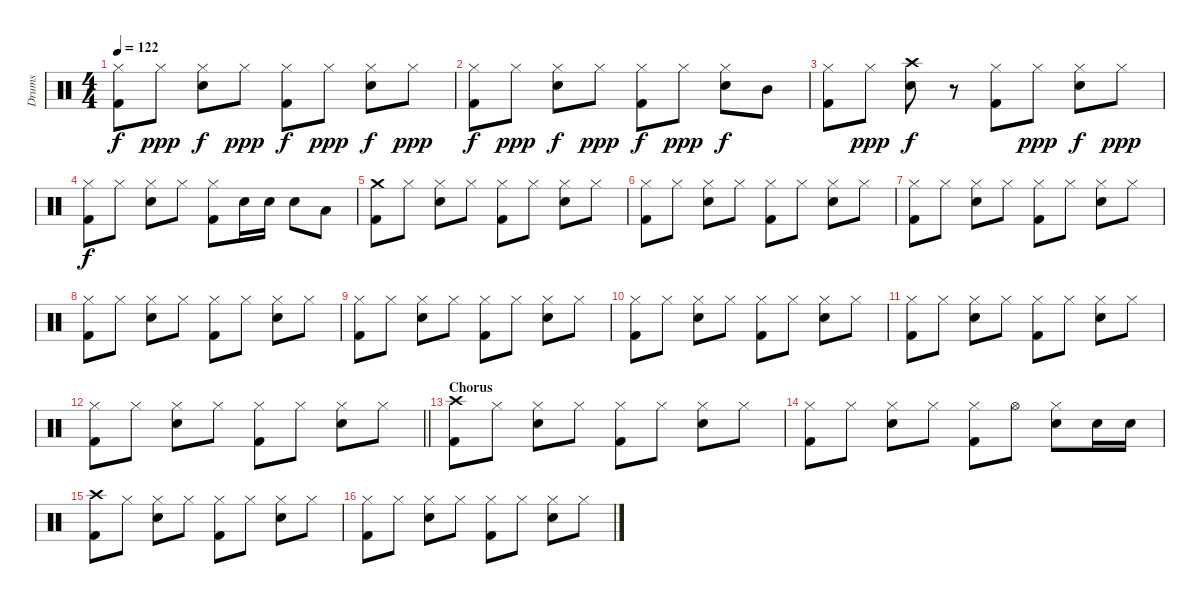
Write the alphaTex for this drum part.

\track ("Drums" "Drums") {instrument percussion}
\staff {score}
\articulation defaults
\ts (4 4)
\tempo 122
\clef neutral
\ks c
("Hi-Hat (closed)" "Kick (hit) 2").8{dy f} "Hi-Hat (closed)".8{dy ppp} ("Hi-Hat (closed)" "Electric Snare (hit)").8{dy f} "Hi-Hat (closed)".8{dy ppp} ("Hi-Hat (closed)" "Kick (hit) 2").8{dy f} "Hi-Hat (closed)".8{dy ppp} ("Hi-Hat (closed)" "Electric Snare (hit)").8{dy f} "Hi-Hat (closed)".8{dy ppp} |
("Hi-Hat (closed)" "Kick (hit) 2").8{dy f} "Hi-Hat (closed)".8{dy ppp} ("Hi-Hat (closed)" "Electric Snare (hit)").8{dy f} "Hi-Hat (closed)".8{dy ppp} ("Hi-Hat (closed)" "Kick (hit) 2").8{dy f} "Hi-Hat (closed)".8{dy ppp} ("Hi-Hat (closed)" "Electric Snare (hit)").8{dy f} "Mid Tom (hit)".8 |
("Hi-Hat (closed)" "Kick (hit) 2").8 "Hi-Hat (closed)".8{dy ppp} ("Crash high (hit)" "Electric Snare (hit)").8{dy f} r.8 ("Hi-Hat (closed)" "Kick (hit) 2").8 "Hi-Hat (closed)".8{dy ppp} ("Hi-Hat (closed)" "Electric Snare (hit)").8{dy f} "Hi-Hat (closed)".8{dy ppp} |
("Hi-Hat (closed)" "Kick (hit) 2").8{dy f} "Hi-Hat (closed)".8 ("Hi-Hat (closed)" "Electric Snare (hit)").8 "Hi-Hat (closed)".8 ("Hi-Hat (closed)" "Kick (hit) 2").8 "Electric Snare (hit)".16 "Electric Snare (hit)".16 "Electric Snare (hit)".8 "Low Tom (hit)".8 |
("Crash medium (hit)" "Kick (hit) 2").8 "Hi-Hat (closed)".8 ("Hi-Hat (closed)" "Electric Snare (hit)").8 "Hi-Hat (closed)".8 ("Hi-Hat (closed)" "Kick (hit) 2").8 "Hi-Hat (closed)".8 ("Hi-Hat (closed)" "Electric Snare (hit)").8 "Hi-Hat (closed)".8 |
("Hi-Hat (closed)" "Kick (hit) 2").8 "Hi-Hat (closed)".8 ("Hi-Hat (closed)" "Electric Snare (hit)").8 "Hi-Hat (closed)".8 ("Hi-Hat (closed)" "Kick (hit) 2").8 "Hi-Hat (closed)".8 ("Hi-Hat (closed)" "Electric Snare (hit)").8 "Hi-Hat (closed)".8 |
("Hi-Hat (closed)" "Kick (hit) 2").8 "Hi-Hat (closed)".8 ("Hi-Hat (closed)" "Electric Snare (hit)").8 "Hi-Hat (closed)".8 ("Hi-Hat (closed)" "Kick (hit) 2").8 "Hi-Hat (closed)".8 ("Hi-Hat (closed)" "Electric Snare (hit)").8 "Hi-Hat (closed)".8 |
("Hi-Hat (closed)" "Kick (hit) 2").8 "Hi-Hat (closed)".8 ("Hi-Hat (closed)" "Electric Snare (hit)").8 "Hi-Hat (closed)".8 ("Hi-Hat (closed)" "Kick (hit) 2").8 "Hi-Hat (closed)".8 ("Hi-Hat (closed)" "Electric Snare (hit)").8 "Hi-Hat (closed)".8 |
("Hi-Hat (closed)" "Kick (hit) 2").8 "Hi-Hat (closed)".8 ("Hi-Hat (closed)" "Electric Snare (hit)").8 "Hi-Hat (closed)".8 ("Hi-Hat (closed)" "Kick (hit) 2").8 "Hi-Hat (closed)".8 ("Hi-Hat (closed)" "Electric Snare (hit)").8 "Hi-Hat (closed)".8 |
("Hi-Hat (closed)" "Kick (hit) 2").8 "Hi-Hat (closed)".8 ("Hi-Hat (closed)" "Electric Snare (hit)").8 "Hi-Hat (closed)".8 ("Hi-Hat (closed)" "Kick (hit) 2").8 "Hi-Hat (closed)".8 ("Hi-Hat (closed)" "Electric Snare (hit)").8 "Hi-Hat (closed)".8 |
("Hi-Hat (closed)" "Kick (hit) 2").8 "Hi-Hat (closed)".8 ("Hi-Hat (closed)" "Electric Snare (hit)").8 "Hi-Hat (closed)".8 ("Hi-Hat (closed)" "Kick (hit) 2").8 "Hi-Hat (closed)".8 ("Hi-Hat (closed)" "Electric Snare (hit)").8 "Hi-Hat (closed)".8 |
\barLineRight lightlight
("Hi-Hat (closed)" "Kick (hit) 2").8 "Hi-Hat (closed)".8 ("Hi-Hat (closed)" "Electric Snare (hit)").8 "Hi-Hat (closed)".8 ("Hi-Hat (closed)" "Kick (hit) 2").8 "Hi-Hat (closed)".8 ("Hi-Hat (closed)" "Electric Snare (hit)").8 "Hi-Hat (closed)".8 |
\section ("" "Chorus")
("Crash high (hit)" "Kick (hit) 2").8 "Hi-Hat (closed)".8 ("Hi-Hat (closed)" "Electric Snare (hit)").8 "Hi-Hat (closed)".8 ("Hi-Hat (closed)" "Kick (hit) 2").8 "Hi-Hat (closed)".8 ("Hi-Hat (closed)" "Electric Snare (hit)").8 "Hi-Hat (closed)".8 |
("Hi-Hat (closed)" "Kick (hit) 2").8 "Hi-Hat (closed)".8 ("Hi-Hat (closed)" "Electric Snare (hit)").8 "Hi-Hat (closed)".8 ("Hi-Hat (closed)" "Kick (hit) 2").8 "Hi-Hat (open)".8 ("Hi-Hat (closed)" "Electric Snare (hit)").8 "Electric Snare (hit)".16 "Electric Snare (hit)".16 |
("Crash high (hit)" "Kick (hit) 2").8 "Hi-Hat (closed)".8 ("Hi-Hat (closed)" "Electric Snare (hit)").8 "Hi-Hat (closed)".8 ("Hi-Hat (closed)" "Kick (hit) 2").8 "Hi-Hat (closed)".8 ("Hi-Hat (closed)" "Electric Snare (hit)").8 "Hi-Hat (closed)".8 |
("Hi-Hat (closed)" "Kick (hit) 2").8 "Hi-Hat (closed)".8 ("Hi-Hat (closed)" "Electric Snare (hit)").8 "Hi-Hat (closed)".8 ("Hi-Hat (closed)" "Kick (hit) 2").8 "Hi-Hat (closed)".8 ("Hi-Hat (closed)" "Electric Snare (hit)").8 "Hi-Hat (closed)".8
